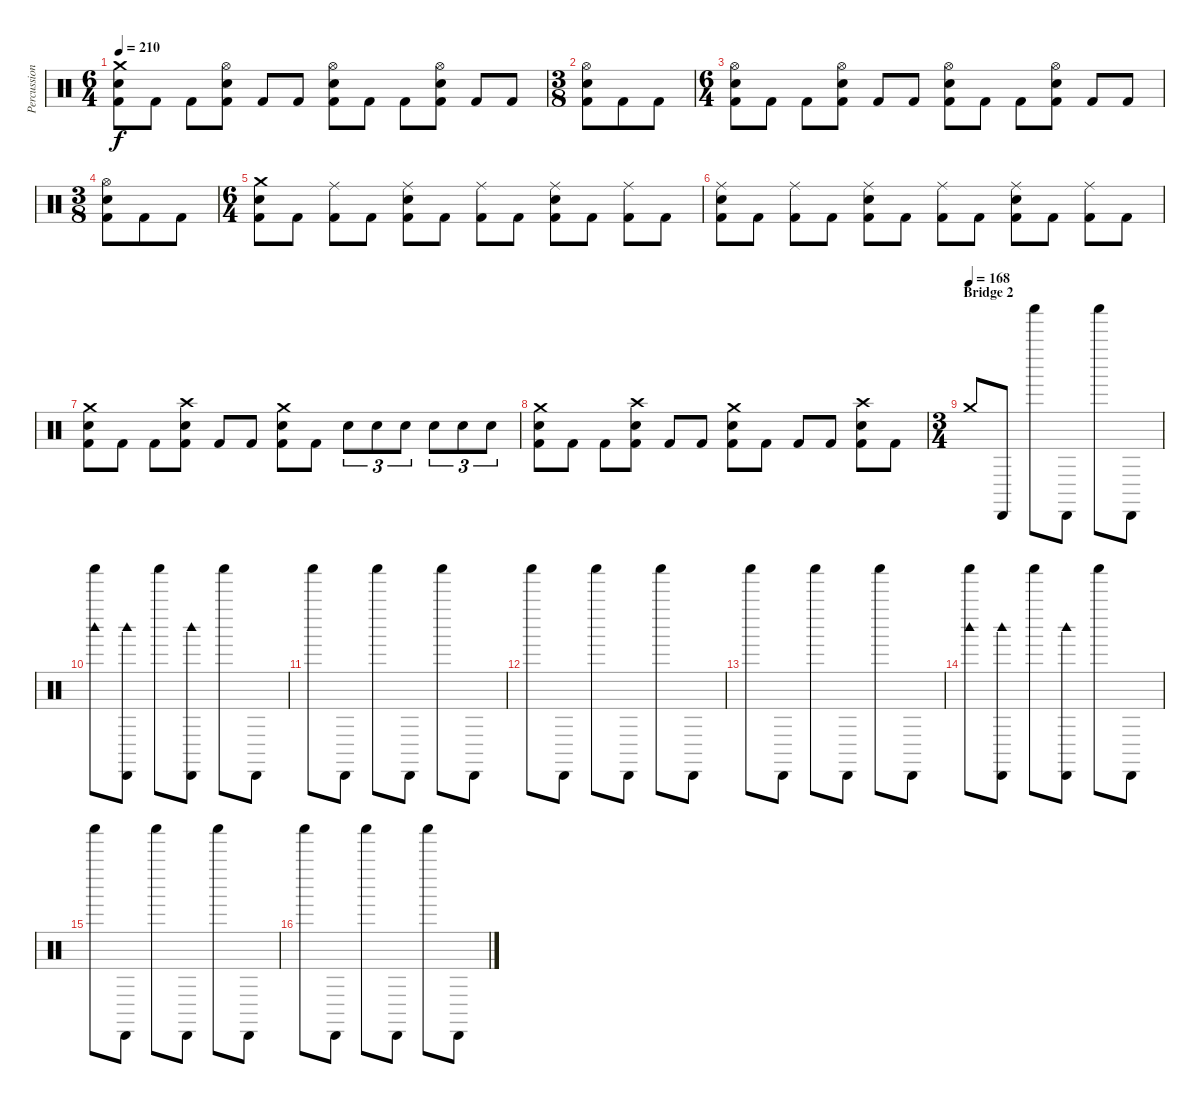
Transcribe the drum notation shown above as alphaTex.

\track ("Percussion" "Percussion") {instrument percussion}
\staff {score}
\articulation defaults
\ts (6 4)
\tempo 210
\clef neutral
\ks c
("Crash medium (hit)" "Electric Snare (hit)" "Kick (hit) 2").8{dy f} "Kick (hit) 2".8 "Kick (hit) 2".8 ("Hi-Hat (open)" "Electric Snare (hit)" "Kick (hit) 2").8 "Kick (hit) 2".8 "Kick (hit) 2".8 ("Hi-Hat (open)" "Electric Snare (hit)" "Kick (hit) 2").8 "Kick (hit) 2".8 "Kick (hit) 2".8 ("Hi-Hat (open)" "Electric Snare (hit)" "Kick (hit) 2").8 "Kick (hit) 2".8 "Kick (hit) 2".8 |
\ts (3 8)
("Hi-Hat (open)" "Electric Snare (hit)" "Kick (hit) 2").8 "Kick (hit) 2".8 "Kick (hit) 2".8 |
\ts (6 4)
("Hi-Hat (open)" "Electric Snare (hit)" "Kick (hit) 2").8 "Kick (hit) 2".8 "Kick (hit) 2".8 ("Hi-Hat (open)" "Electric Snare (hit)" "Kick (hit) 2").8 "Kick (hit) 2".8 "Kick (hit) 2".8 ("Hi-Hat (open)" "Electric Snare (hit)" "Kick (hit) 2").8 "Kick (hit) 2".8 "Kick (hit) 2".8 ("Hi-Hat (open)" "Electric Snare (hit)" "Kick (hit) 2").8 "Kick (hit) 2".8 "Kick (hit) 2".8 |
\ts (3 8)
("Hi-Hat (open)" "Electric Snare (hit)" "Kick (hit) 2").8 "Kick (hit) 2".8 "Kick (hit) 2".8 |
\ts (6 4)
("Crash medium (hit)" "Electric Snare (hit)" "Kick (hit) 2").8 "Kick (hit) 2".8 ("Ride (middle)" "Kick (hit) 2").8 "Kick (hit) 2".8 ("Ride (middle)" "Electric Snare (hit)" "Kick (hit) 2").8 "Kick (hit) 2".8 ("Ride (middle)" "Kick (hit) 2").8 "Kick (hit) 2".8 ("Ride (middle)" "Electric Snare (hit)" "Kick (hit) 2").8 "Kick (hit) 2".8 ("Ride (middle)" "Kick (hit) 2").8 "Kick (hit) 2".8 |
("Ride (middle)" "Electric Snare (hit)" "Kick (hit) 2").8 "Kick (hit) 2".8 ("Ride (middle)" "Kick (hit) 2").8 "Kick (hit) 2".8 ("Ride (middle)" "Electric Snare (hit)" "Kick (hit) 2").8 "Kick (hit) 2".8 ("Ride (middle)" "Kick (hit) 2").8 "Kick (hit) 2".8 ("Ride (middle)" "Electric Snare (hit)" "Kick (hit) 2").8 "Kick (hit) 2".8 ("Ride (middle)" "Kick (hit) 2").8 "Kick (hit) 2".8 |
("Crash medium (hit)" "Electric Snare (hit)" "Kick (hit) 2").8 "Kick (hit) 2".8 "Kick (hit) 2".8 ("Crash high (hit)" "Electric Snare (hit)" "Kick (hit) 2").8 "Kick (hit) 2".8 "Kick (hit) 2".8 ("Crash medium (hit)" "Electric Snare (hit)" "Kick (hit) 2").8 "Kick (hit) 2".8 "Electric Snare (hit)".8{tu (3 2)} "Electric Snare (hit)".8{tu (3 2)} "Electric Snare (hit)".8{tu (3 2)} "Electric Snare (hit)".8{tu (3 2)} "Electric Snare (hit)".8{tu (3 2)} "Electric Snare (hit)".8{tu (3 2)} |
("Crash medium (hit)" "Electric Snare (hit)" "Kick (hit) 2").8 "Kick (hit) 2".8 "Kick (hit) 2".8 ("Crash high (hit)" "Electric Snare (hit)" "Kick (hit) 2").8 "Kick (hit) 2".8 "Kick (hit) 2".8 ("Crash medium (hit)" "Electric Snare (hit)" "Kick (hit) 2").8 "Kick (hit) 2".8 "Kick (hit) 2".8 "Kick (hit) 2".8 ("Crash high (hit)" "Electric Snare (hit)" "Kick (hit) 2").8 "Kick (hit) 2".8 |
\ts (3 4)
\section ("" "Bridge 2")
\tempo (168)
"Crash medium (hit)".8 "Cabasa (hit)".8 "Shaker (hit)".8 "Cabasa (hit)".8 "Shaker (hit)".8 "Cabasa (hit)".8 |
("Shaker (hit)" "Woodblock high (hit)").8 ("Cabasa (hit)" "Woodblock high (hit)").8 "Shaker (hit)".8 ("Cabasa (hit)" "Woodblock high (hit)").8 "Shaker (hit)".8 "Cabasa (hit)".8 |
"Shaker (hit)".8 "Cabasa (hit)".8 "Shaker (hit)".8 "Cabasa (hit)".8 "Shaker (hit)".8 "Cabasa (hit)".8 |
"Shaker (hit)".8 "Cabasa (hit)".8 "Shaker (hit)".8 "Cabasa (hit)".8 "Shaker (hit)".8 "Cabasa (hit)".8 |
"Shaker (hit)".8 "Cabasa (hit)".8 "Shaker (hit)".8 "Cabasa (hit)".8 "Shaker (hit)".8 "Cabasa (hit)".8 |
("Shaker (hit)" "Woodblock high (hit)").8 ("Cabasa (hit)" "Woodblock high (hit)").8 "Shaker (hit)".8 ("Cabasa (hit)" "Woodblock high (hit)").8 "Shaker (hit)".8 "Cabasa (hit)".8 |
"Shaker (hit)".8 "Cabasa (hit)".8 "Shaker (hit)".8 "Cabasa (hit)".8 "Shaker (hit)".8 "Cabasa (hit)".8 |
"Shaker (hit)".8 "Cabasa (hit)".8 "Shaker (hit)".8 "Cabasa (hit)".8 "Shaker (hit)".8 "Cabasa (hit)".8
